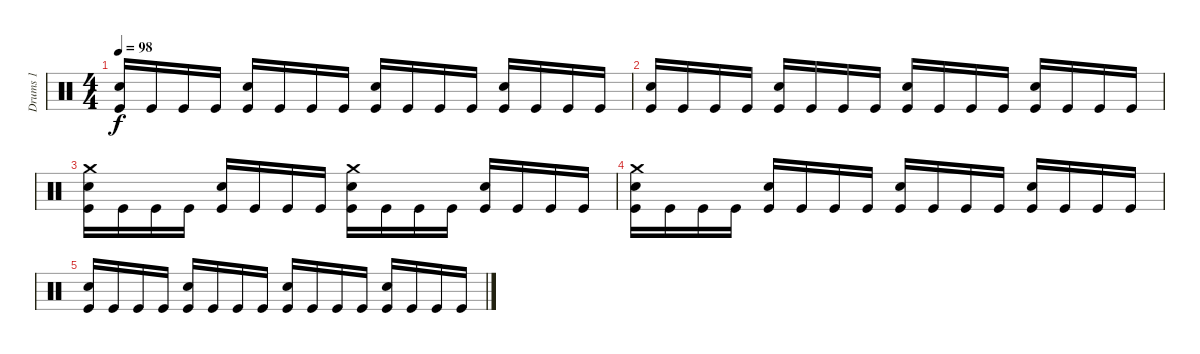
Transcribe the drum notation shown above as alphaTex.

\track ("Drums 1" "Drums 1") {instrument percussion}
\staff {score}
\articulation defaults
\ts (4 4)
\tempo 98
\clef neutral
\ks c
("Snare (hit) 2" "Kick (hit)").16{dy f volume 12} "Kick (hit)".16 "Kick (hit)".16 "Kick (hit)".16 ("Snare (hit) 2" "Kick (hit)").16 "Kick (hit)".16 "Kick (hit)".16 "Kick (hit)".16 ("Snare (hit) 2" "Kick (hit)").16 "Kick (hit)".16 "Kick (hit)".16 "Kick (hit)".16 ("Snare (hit) 2" "Kick (hit)").16 "Kick (hit)".16 "Kick (hit)".16 "Kick (hit)".16 |
("Snare (hit) 2" "Kick (hit)").16{volume 9} "Kick (hit)".16 "Kick (hit)".16 "Kick (hit)".16 ("Snare (hit) 2" "Kick (hit)").16 "Kick (hit)".16 "Kick (hit)".16 "Kick (hit)".16 ("Snare (hit) 2" "Kick (hit)").16 "Kick (hit)".16 "Kick (hit)".16 "Kick (hit)".16 ("Snare (hit) 2" "Kick (hit)").16 "Kick (hit)".16 "Kick (hit)".16 "Kick (hit)".16 |
("Crash medium (hit)" "Snare (hit) 2" "Kick (hit)").16{volume 6} "Kick (hit)".16 "Kick (hit)".16 "Kick (hit)".16 ("Snare (hit) 2" "Kick (hit)").16 "Kick (hit)".16 "Kick (hit)".16 "Kick (hit)".16 ("Crash medium (hit)" "Snare (hit) 2" "Kick (hit)").16 "Kick (hit)".16 "Kick (hit)".16 "Kick (hit)".16 ("Snare (hit) 2" "Kick (hit)").16 "Kick (hit)".16 "Kick (hit)".16 "Kick (hit)".16 |
("Crash medium (hit)" "Snare (hit) 2" "Kick (hit)").16{volume 3} "Kick (hit)".16 "Kick (hit)".16 "Kick (hit)".16 ("Snare (hit) 2" "Kick (hit)").16 "Kick (hit)".16 "Kick (hit)".16 "Kick (hit)".16 ("Snare (hit) 2" "Kick (hit)").16 "Kick (hit)".16 "Kick (hit)".16 "Kick (hit)".16 ("Snare (hit) 2" "Kick (hit)").16 "Kick (hit)".16 "Kick (hit)".16 "Kick (hit)".16 |
("Snare (hit) 2" "Kick (hit)").16{volume 1} "Kick (hit)".16 "Kick (hit)".16 "Kick (hit)".16 ("Snare (hit) 2" "Kick (hit)").16 "Kick (hit)".16 "Kick (hit)".16 "Kick (hit)".16 ("Snare (hit) 2" "Kick (hit)").16 "Kick (hit)".16 "Kick (hit)".16 "Kick (hit)".16 ("Snare (hit) 2" "Kick (hit)").16 "Kick (hit)".16 "Kick (hit)".16 "Kick (hit)".16
